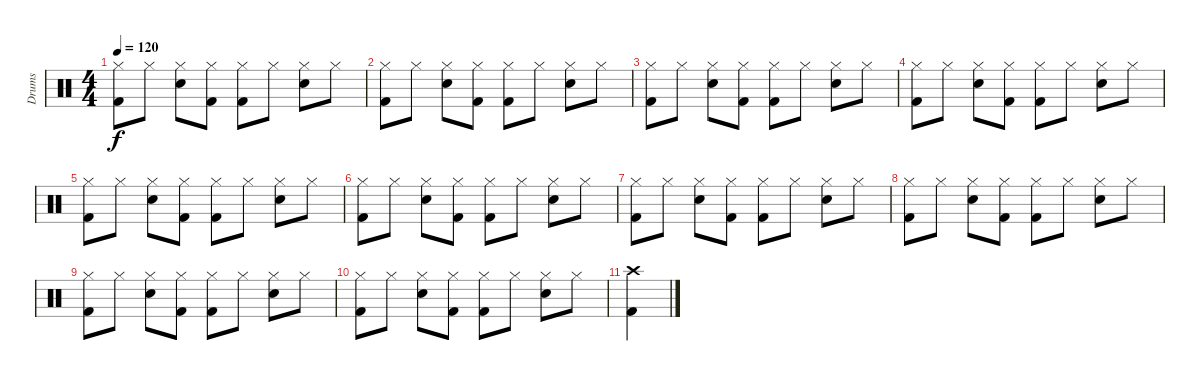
\track ("Drums" "Drums") {instrument percussion}
\staff {score}
\articulation defaults
\ts (4 4)
\tempo 120
\clef neutral
\ks c
("Hi-Hat (closed)" "Kick (hit) 2").8{dy f} "Hi-Hat (closed)".8 ("Hi-Hat (closed)" "Snare (hit) 2").8 ("Hi-Hat (closed)" "Kick (hit) 2").8 ("Hi-Hat (closed)" "Kick (hit) 2").8 "Hi-Hat (closed)".8 ("Hi-Hat (closed)" "Snare (hit) 2").8 "Hi-Hat (closed)".8 |
("Hi-Hat (closed)" "Kick (hit) 2").8 "Hi-Hat (closed)".8 ("Hi-Hat (closed)" "Snare (hit) 2").8 ("Hi-Hat (closed)" "Kick (hit) 2").8 ("Hi-Hat (closed)" "Kick (hit) 2").8 "Hi-Hat (closed)".8 ("Hi-Hat (closed)" "Snare (hit) 2").8 "Hi-Hat (closed)".8 |
("Hi-Hat (closed)" "Kick (hit) 2").8 "Hi-Hat (closed)".8 ("Hi-Hat (closed)" "Snare (hit) 2").8 ("Hi-Hat (closed)" "Kick (hit) 2").8 ("Hi-Hat (closed)" "Kick (hit) 2").8 "Hi-Hat (closed)".8 ("Hi-Hat (closed)" "Snare (hit) 2").8 "Hi-Hat (closed)".8 |
("Hi-Hat (closed)" "Kick (hit) 2").8 "Hi-Hat (closed)".8 ("Hi-Hat (closed)" "Snare (hit) 2").8 ("Hi-Hat (closed)" "Kick (hit) 2").8 ("Hi-Hat (closed)" "Kick (hit) 2").8 "Hi-Hat (closed)".8 ("Hi-Hat (closed)" "Snare (hit) 2").8 "Hi-Hat (closed)".8 |
("Hi-Hat (closed)" "Kick (hit) 2").8 "Hi-Hat (closed)".8 ("Hi-Hat (closed)" "Snare (hit) 2").8 ("Hi-Hat (closed)" "Kick (hit) 2").8 ("Hi-Hat (closed)" "Kick (hit) 2").8 "Hi-Hat (closed)".8 ("Hi-Hat (closed)" "Snare (hit) 2").8 "Hi-Hat (closed)".8 |
("Hi-Hat (closed)" "Kick (hit) 2").8 "Hi-Hat (closed)".8 ("Hi-Hat (closed)" "Snare (hit) 2").8 ("Hi-Hat (closed)" "Kick (hit) 2").8 ("Hi-Hat (closed)" "Kick (hit) 2").8 "Hi-Hat (closed)".8 ("Hi-Hat (closed)" "Snare (hit) 2").8 "Hi-Hat (closed)".8 |
("Hi-Hat (closed)" "Kick (hit) 2").8 "Hi-Hat (closed)".8 ("Hi-Hat (closed)" "Snare (hit) 2").8 ("Hi-Hat (closed)" "Kick (hit) 2").8 ("Hi-Hat (closed)" "Kick (hit) 2").8 "Hi-Hat (closed)".8 ("Hi-Hat (closed)" "Snare (hit) 2").8 "Hi-Hat (closed)".8 |
("Hi-Hat (closed)" "Kick (hit) 2").8 "Hi-Hat (closed)".8 ("Hi-Hat (closed)" "Snare (hit) 2").8 ("Hi-Hat (closed)" "Kick (hit) 2").8 ("Hi-Hat (closed)" "Kick (hit) 2").8 "Hi-Hat (closed)".8 ("Hi-Hat (closed)" "Snare (hit) 2").8 "Hi-Hat (closed)".8 |
("Hi-Hat (closed)" "Kick (hit) 2").8 "Hi-Hat (closed)".8 ("Hi-Hat (closed)" "Snare (hit) 2").8 ("Hi-Hat (closed)" "Kick (hit) 2").8 ("Hi-Hat (closed)" "Kick (hit) 2").8 "Hi-Hat (closed)".8 ("Hi-Hat (closed)" "Snare (hit) 2").8 "Hi-Hat (closed)".8 |
("Hi-Hat (closed)" "Kick (hit) 2").8 "Hi-Hat (closed)".8 ("Hi-Hat (closed)" "Snare (hit) 2").8 ("Hi-Hat (closed)" "Kick (hit) 2").8 ("Hi-Hat (closed)" "Kick (hit) 2").8 "Hi-Hat (closed)".8 ("Hi-Hat (closed)" "Snare (hit) 2").8 "Hi-Hat (closed)".8 |
("Crash high (hit)" "Kick (hit) 2").4
